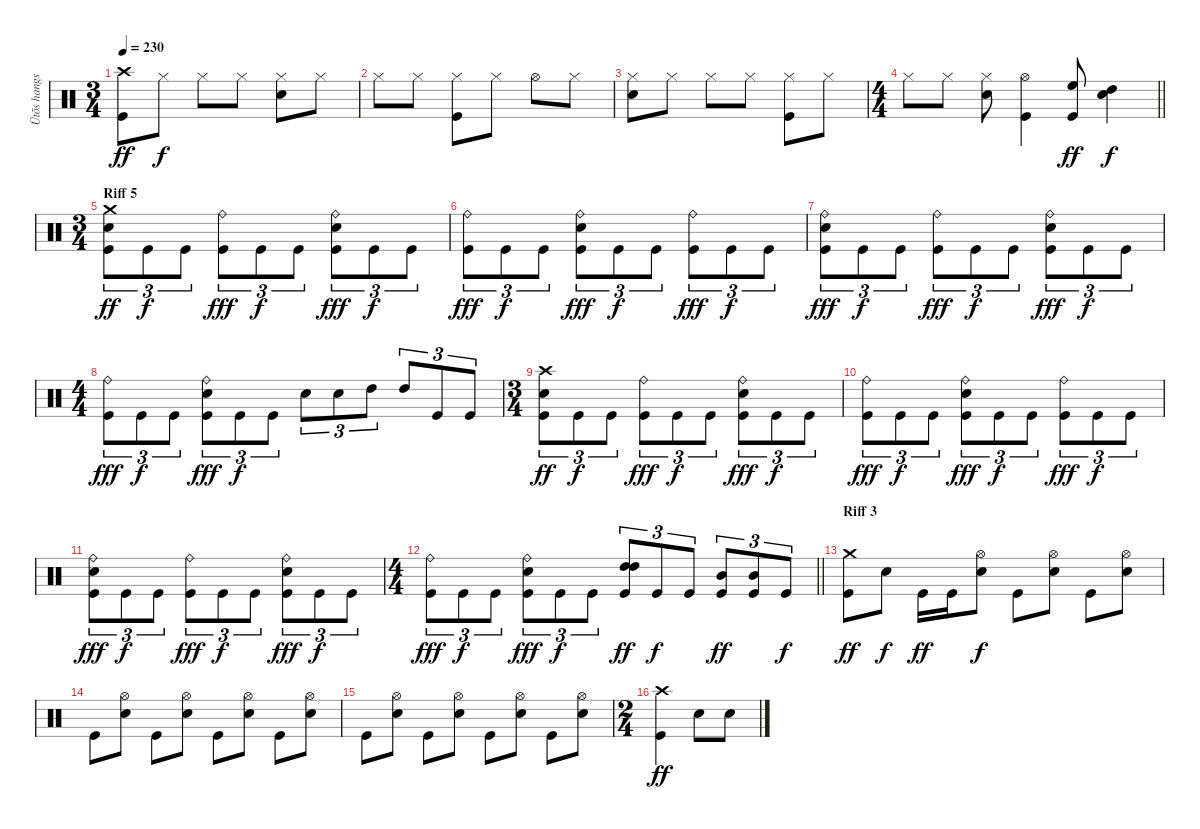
\track ("Ütõs hangszer" "Ütõs hangs") {instrument percussion}
\staff {score}
\articulation defaults
\ts (3 4)
\tempo 230
\clef neutral
\ks c
("Crash high (hit)" "Kick (hit)").8{dy ff} "Hi-Hat (closed)".8{dy f} "Hi-Hat (closed)".8 "Hi-Hat (closed)".8 ("Hi-Hat (closed)" "Electric Snare (hit)").8 "Hi-Hat (closed)".8 |
"Hi-Hat (closed)".8 "Hi-Hat (closed)".8 ("Hi-Hat (closed)" "Kick (hit)").8 "Hi-Hat (closed)".8 "Hi-Hat (open)".8 "Hi-Hat (closed)".8 |
("Hi-Hat (closed)" "Electric Snare (hit)").8 "Hi-Hat (closed)".8 "Hi-Hat (closed)".8 "Hi-Hat (closed)".8 ("Hi-Hat (closed)" "Kick (hit)").8 "Hi-Hat (closed)".8 |
\ts (4 4)
\barLineRight lightlight "Hi-Hat (closed)".8 "Hi-Hat (closed)".8
("Hi-Hat (closed)" "Electric Snare (hit)").8 ("Hi-Hat (open)" "Kick (hit)").4 ("High Floor Tom (hit)" "Kick (hit)").8{dy ff} ("High Tom (hit)" "Electric Snare (hit)").4{dy f} |
\ts (3 4)
\section ("" "Riff 5")
("Crash medium (hit)" "Electric Snare (hit)" "Kick (hit)").8{tu (3 2) dy ff} "Kick (hit)".8{tu (3 2) dy f} "Kick (hit)".8{tu (3 2)} ("Ride (bell)" "Kick (hit)").8{tu (3 2) dy fff} "Kick (hit)".8{tu (3 2) dy f} "Kick (hit)".8{tu (3 2)} ("Ride (bell)" "Electric Snare (hit)" "Kick (hit)").8{tu (3 2) dy fff} "Kick (hit)".8{tu (3 2) dy f} "Kick (hit)".8{tu (3 2)} |
("Ride (bell)" "Kick (hit)").8{tu (3 2) dy fff} "Kick (hit)".8{tu (3 2) dy f} "Kick (hit)".8{tu (3 2)} ("Ride (bell)" "Electric Snare (hit)" "Kick (hit)").8{tu (3 2) dy fff} "Kick (hit)".8{tu (3 2) dy f} "Kick (hit)".8{tu (3 2)} ("Ride (bell)" "Kick (hit)").8{tu (3 2) dy fff} "Kick (hit)".8{tu (3 2) dy f} "Kick (hit)".8{tu (3 2)} |
("Ride (bell)" "Electric Snare (hit)" "Kick (hit)").8{tu (3 2) dy fff} "Kick (hit)".8{tu (3 2) dy f} "Kick (hit)".8{tu (3 2)} ("Ride (bell)" "Kick (hit)").8{tu (3 2) dy fff} "Kick (hit)".8{tu (3 2) dy f} "Kick (hit)".8{tu (3 2)} ("Ride (bell)" "Electric Snare (hit)" "Kick (hit)").8{tu (3 2) dy fff} "Kick (hit)".8{tu (3 2) dy f} "Kick (hit)".8{tu (3 2)} |
\ts (4 4)
("Ride (bell)" "Kick (hit)").8{tu (3 2) dy fff} "Kick (hit)".8{tu (3 2) dy f} "Kick (hit)".8{tu (3 2)} ("Ride (bell)" "Electric Snare (hit)" "Kick (hit)").8{tu (3 2) dy fff} "Kick (hit)".8{tu (3 2) dy f} "Kick (hit)".8{tu (3 2)} "Electric Snare (hit)".8{tu (3 2)} "Electric Snare (hit)".8{tu (3 2)} "High Tom (hit)".8{tu (3 2)} "High Tom (hit)".8{tu (3 2)} "Kick (hit)".8{tu (3 2)} "Kick (hit)".8{tu (3 2)} |
\ts (3 4)
("Crash high (hit)" "Electric Snare (hit)" "Kick (hit)").8{tu (3 2) dy ff} "Kick (hit)".8{tu (3 2) dy f} "Kick (hit)".8{tu (3 2)} ("Ride (bell)" "Kick (hit)").8{tu (3 2) dy fff} "Kick (hit)".8{tu (3 2) dy f} "Kick (hit)".8{tu (3 2)} ("Ride (bell)" "Electric Snare (hit)" "Kick (hit)").8{tu (3 2) dy fff} "Kick (hit)".8{tu (3 2) dy f} "Kick (hit)".8{tu (3 2)} |
("Ride (bell)" "Kick (hit)").8{tu (3 2) dy fff} "Kick (hit)".8{tu (3 2) dy f} "Kick (hit)".8{tu (3 2)} ("Ride (bell)" "Electric Snare (hit)" "Kick (hit)").8{tu (3 2) dy fff} "Kick (hit)".8{tu (3 2) dy f} "Kick (hit)".8{tu (3 2)} ("Ride (bell)" "Kick (hit)").8{tu (3 2) dy fff} "Kick (hit)".8{tu (3 2) dy f} "Kick (hit)".8{tu (3 2)} |
("Ride (bell)" "Electric Snare (hit)" "Kick (hit)").8{tu (3 2) dy fff} "Kick (hit)".8{tu (3 2) dy f} "Kick (hit)".8{tu (3 2)} ("Ride (bell)" "Kick (hit)").8{tu (3 2) dy fff} "Kick (hit)".8{tu (3 2) dy f} "Kick (hit)".8{tu (3 2)} ("Ride (bell)" "Electric Snare (hit)" "Kick (hit)").8{tu (3 2) dy fff} "Kick (hit)".8{tu (3 2) dy f} "Kick (hit)".8{tu (3 2)} |
\ts (4 4)
\barLineRight lightlight
("Ride (bell)" "Kick (hit)").8{tu (3 2) dy fff} "Kick (hit)".8{tu (3 2) dy f} "Kick (hit)".8{tu (3 2)} ("Ride (bell)" "Electric Snare (hit)" "Kick (hit)").8{tu (3 2) dy fff} "Kick (hit)".8{tu (3 2) dy f} "Kick (hit)".8{tu (3 2)} ("High Tom (hit)" "High Tom (hit)" "Kick (hit)").8{tu (3 2) bu 480 dy ff} "Kick (hit)".8{tu (3 2) dy f} "Kick (hit)".8{tu (3 2)} ("Mid Tom (hit)" "Kick (hit)").8{tu (3 2) dy ff} ("Mid Tom (hit)" "Kick (hit)").8{tu (3 2)} "Kick (hit)".8{tu (3 2) dy f} |
\section ("" "Riff 3")
("Crash medium (hit)" "Kick (hit)").8{dy ff} "Electric Snare (hit)".8{dy f} "Kick (hit)".16{dy ff} "Kick (hit)".16 ("Hi-Hat (open)" "Electric Snare (hit)").8{dy f} "Kick (hit)".8 ("Hi-Hat (open)" "Electric Snare (hit)").8 "Kick (hit)".8 ("Hi-Hat (open)" "Electric Snare (hit)").8 |
"Kick (hit)".8 ("Hi-Hat (open)" "Electric Snare (hit)").8 "Kick (hit)".8 ("Hi-Hat (open)" "Electric Snare (hit)").8 "Kick (hit)".8 ("Hi-Hat (open)" "Electric Snare (hit)").8 "Kick (hit)".8 ("Hi-Hat (open)" "Electric Snare (hit)").8 |
"Kick (hit)".8 ("Hi-Hat (open)" "Electric Snare (hit)").8 "Kick (hit)".8 ("Hi-Hat (open)" "Electric Snare (hit)").8 "Kick (hit)".8 ("Hi-Hat (open)" "Electric Snare (hit)").8 "Kick (hit)".8 ("Hi-Hat (open)" "Electric Snare (hit)").8 |
\ts (2 4)
("Crash high (hit)" "Kick (hit)").4{dy ff} "Electric Snare (hit)".8 "Electric Snare (hit)".8
